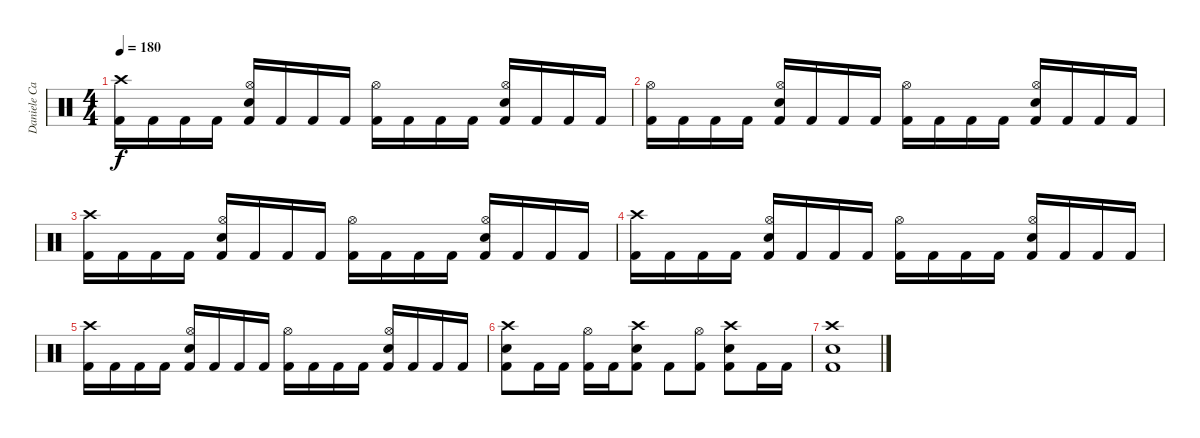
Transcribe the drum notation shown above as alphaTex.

\track ("Daniele Carbonera " "Daniele Ca") {instrument percussion}
\staff {score}
\articulation defaults
\ts (4 4)
\tempo 180
\clef neutral
\ks c
("Crash high (hit)" "Kick (hit) 2").16{dy f} "Kick (hit) 2".16 "Kick (hit) 2".16 "Kick (hit) 2".16 ("Hi-Hat (open)" "Electric Snare (hit)" "Kick (hit) 2").16 "Kick (hit) 2".16 "Kick (hit) 2".16 "Kick (hit) 2".16 ("Hi-Hat (open)" "Kick (hit) 2").16 "Kick (hit) 2".16 "Kick (hit) 2".16 "Kick (hit) 2".16 ("Hi-Hat (open)" "Electric Snare (hit)" "Kick (hit) 2").16 "Kick (hit) 2".16 "Kick (hit) 2".16 "Kick (hit) 2".16 |
("Hi-Hat (open)" "Kick (hit) 2").16 "Kick (hit) 2".16 "Kick (hit) 2".16 "Kick (hit) 2".16 ("Hi-Hat (open)" "Electric Snare (hit)" "Kick (hit) 2").16 "Kick (hit) 2".16 "Kick (hit) 2".16 "Kick (hit) 2".16 ("Hi-Hat (open)" "Kick (hit) 2").16 "Kick (hit) 2".16 "Kick (hit) 2".16 "Kick (hit) 2".16 ("Hi-Hat (open)" "Electric Snare (hit)" "Kick (hit) 2").16 "Kick (hit) 2".16 "Kick (hit) 2".16 "Kick (hit) 2".16 |
("Crash high (hit)" "Kick (hit) 2").16 "Kick (hit) 2".16 "Kick (hit) 2".16 "Kick (hit) 2".16 ("Hi-Hat (open)" "Electric Snare (hit)" "Kick (hit) 2").16 "Kick (hit) 2".16 "Kick (hit) 2".16 "Kick (hit) 2".16 ("Hi-Hat (open)" "Kick (hit) 2").16 "Kick (hit) 2".16 "Kick (hit) 2".16 "Kick (hit) 2".16 ("Hi-Hat (open)" "Electric Snare (hit)" "Kick (hit) 2").16 "Kick (hit) 2".16 "Kick (hit) 2".16 "Kick (hit) 2".16 |
("Crash high (hit)" "Kick (hit) 2").16 "Kick (hit) 2".16 "Kick (hit) 2".16 "Kick (hit) 2".16 ("Hi-Hat (open)" "Electric Snare (hit)" "Kick (hit) 2").16 "Kick (hit) 2".16 "Kick (hit) 2".16 "Kick (hit) 2".16 ("Hi-Hat (open)" "Kick (hit) 2").16 "Kick (hit) 2".16 "Kick (hit) 2".16 "Kick (hit) 2".16 ("Hi-Hat (open)" "Electric Snare (hit)" "Kick (hit) 2").16 "Kick (hit) 2".16 "Kick (hit) 2".16 "Kick (hit) 2".16 |
("Crash high (hit)" "Kick (hit) 2").16 "Kick (hit) 2".16 "Kick (hit) 2".16 "Kick (hit) 2".16 ("Hi-Hat (open)" "Electric Snare (hit)" "Kick (hit) 2").16 "Kick (hit) 2".16 "Kick (hit) 2".16 "Kick (hit) 2".16 ("Hi-Hat (open)" "Kick (hit) 2").16 "Kick (hit) 2".16 "Kick (hit) 2".16 "Kick (hit) 2".16 ("Hi-Hat (open)" "Electric Snare (hit)" "Kick (hit) 2").16 "Kick (hit) 2".16 "Kick (hit) 2".16 "Kick (hit) 2".16 |
("Crash high (hit)" "Electric Snare (hit)" "Kick (hit) 2").8 "Kick (hit) 2".16 "Kick (hit) 2".16 ("Hi-Hat (open)" "Kick (hit) 2").16 "Kick (hit) 2".16 ("Crash high (hit)" "Electric Snare (hit)" "Kick (hit) 2").8 "Kick (hit) 2".8 ("Hi-Hat (open)" "Kick (hit) 2").8 ("Crash high (hit)" "Electric Snare (hit)" "Kick (hit) 2").8 "Kick (hit) 2".16 "Kick (hit) 2".16 |
("Crash high (hit)" "Electric Snare (hit)" "Kick (hit) 2").1
